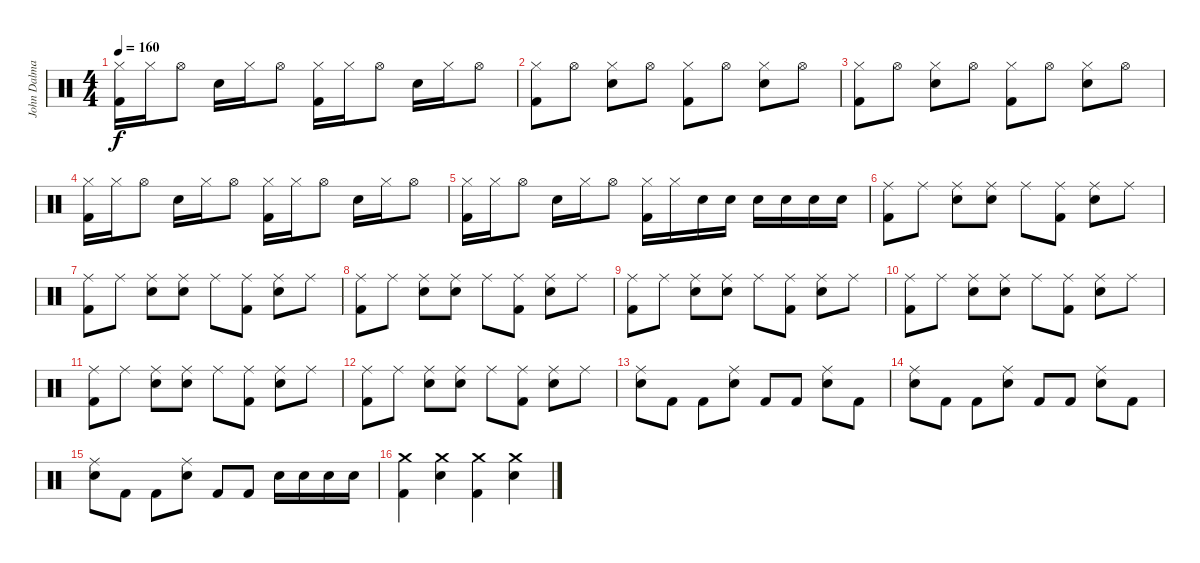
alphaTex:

\track ("John Dalmayian - Drums" "John Dalma") {instrument percussion}
\staff {score}
\articulation defaults
\ts (4 4)
\tempo 160
\clef neutral
\ks c
("Hi-Hat (closed)" "Kick (hit) 2").16{dy f} "Hi-Hat (closed)".16 "Hi-Hat (open)".8 "Snare (hit) 2".16 "Hi-Hat (closed)".16 "Hi-Hat (open)".8 ("Hi-Hat (closed)" "Kick (hit) 2").16 "Hi-Hat (closed)".16 "Hi-Hat (open)".8 "Snare (hit) 2".16 "Hi-Hat (closed)".16 "Hi-Hat (open)".8 |
("Hi-Hat (closed)" "Kick (hit) 2").8 "Hi-Hat (open)".8 ("Hi-Hat (closed)" "Snare (hit) 2").8 "Hi-Hat (open)".8 ("Hi-Hat (closed)" "Kick (hit) 2").8 "Hi-Hat (open)".8 ("Hi-Hat (closed)" "Snare (hit) 2").8 "Hi-Hat (open)".8 |
("Hi-Hat (closed)" "Kick (hit) 2").8 "Hi-Hat (open)".8 ("Hi-Hat (closed)" "Snare (hit) 2").8 "Hi-Hat (open)".8 ("Hi-Hat (closed)" "Kick (hit) 2").8 "Hi-Hat (open)".8 ("Hi-Hat (closed)" "Snare (hit) 2").8 "Hi-Hat (open)".8 |
("Hi-Hat (closed)" "Kick (hit) 2").16 "Hi-Hat (closed)".16 "Hi-Hat (open)".8 "Snare (hit) 2".16 "Hi-Hat (closed)".16 "Hi-Hat (open)".8 ("Hi-Hat (closed)" "Kick (hit) 2").16 "Hi-Hat (closed)".16 "Hi-Hat (open)".8 "Snare (hit) 2".16 "Hi-Hat (closed)".16 "Hi-Hat (open)".8 |
("Hi-Hat (closed)" "Kick (hit) 2").16 "Hi-Hat (closed)".16 "Hi-Hat (open)".8 "Snare (hit) 2".16 "Hi-Hat (closed)".16 "Hi-Hat (open)".8 ("Hi-Hat (closed)" "Kick (hit) 2").16 "Hi-Hat (closed)".16 "Snare (hit) 2".16 "Snare (hit) 2".16 "Snare (hit) 2".16 "Snare (hit) 2".16 "Snare (hit) 2".16 "Snare (hit) 2".16 |
("Ride (middle)" "Kick (hit) 2").8 "Ride (middle)".8 ("Ride (middle)" "Snare (hit) 2").8 ("Ride (middle)" "Snare (hit) 2").8 "Ride (middle)".8 ("Ride (middle)" "Kick (hit) 2").8 ("Ride (middle)" "Snare (hit) 2").8 "Ride (middle)".8 |
("Ride (middle)" "Kick (hit) 2").8 "Ride (middle)".8 ("Ride (middle)" "Snare (hit) 2").8 ("Ride (middle)" "Snare (hit) 2").8 "Ride (middle)".8 ("Ride (middle)" "Kick (hit) 2").8 ("Ride (middle)" "Snare (hit) 2").8 "Ride (middle)".8 |
("Ride (middle)" "Kick (hit) 2").8 "Ride (middle)".8 ("Ride (middle)" "Snare (hit) 2").8 ("Ride (middle)" "Snare (hit) 2").8 "Ride (middle)".8 ("Ride (middle)" "Kick (hit) 2").8 ("Ride (middle)" "Snare (hit) 2").8 "Ride (middle)".8 |
("Ride (middle)" "Kick (hit) 2").8 "Ride (middle)".8 ("Ride (middle)" "Snare (hit) 2").8 ("Ride (middle)" "Snare (hit) 2").8 "Ride (middle)".8 ("Ride (middle)" "Kick (hit) 2").8 ("Ride (middle)" "Snare (hit) 2").8 "Ride (middle)".8 |
("Ride (middle)" "Kick (hit) 2").8 "Ride (middle)".8 ("Ride (middle)" "Snare (hit) 2").8 ("Ride (middle)" "Snare (hit) 2").8 "Ride (middle)".8 ("Ride (middle)" "Kick (hit) 2").8 ("Ride (middle)" "Snare (hit) 2").8 "Ride (middle)".8 |
("Ride (middle)" "Kick (hit) 2").8 "Ride (middle)".8 ("Ride (middle)" "Snare (hit) 2").8 ("Ride (middle)" "Snare (hit) 2").8 "Ride (middle)".8 ("Ride (middle)" "Kick (hit) 2").8 ("Ride (middle)" "Snare (hit) 2").8 "Ride (middle)".8 |
("Ride (middle)" "Kick (hit) 2").8 "Ride (middle)".8 ("Ride (middle)" "Snare (hit) 2").8 ("Ride (middle)" "Snare (hit) 2").8 "Ride (middle)".8 ("Ride (middle)" "Kick (hit) 2").8 ("Ride (middle)" "Snare (hit) 2").8 "Ride (middle)".8 |
("Ride (middle)" "Snare (hit) 2").8 "Kick (hit) 2".8 "Kick (hit) 2".8 ("Ride (middle)" "Snare (hit) 2").8 "Kick (hit) 2".8 "Kick (hit) 2".8 ("Ride (middle)" "Snare (hit) 2").8 "Kick (hit) 2".8 |
("Ride (middle)" "Snare (hit) 2").8 "Kick (hit) 2".8 "Kick (hit) 2".8 ("Ride (middle)" "Snare (hit) 2").8 "Kick (hit) 2".8 "Kick (hit) 2".8 ("Ride (middle)" "Snare (hit) 2").8 "Kick (hit) 2".8 |
("Ride (middle)" "Snare (hit) 2").8 "Kick (hit) 2".8 "Kick (hit) 2".8 ("Ride (middle)" "Snare (hit) 2").8 "Kick (hit) 2".8 "Kick (hit) 2".8 "Snare (hit) 2".16 "Snare (hit) 2".16 "Snare (hit) 2".16 "Snare (hit) 2".16 |
("Crash medium (hit)" "Kick (hit) 2").4 ("Crash medium (hit)" "Snare (hit) 2").4 ("Crash medium (hit)" "Kick (hit) 2").4 ("Crash medium (hit)" "Snare (hit) 2").4
